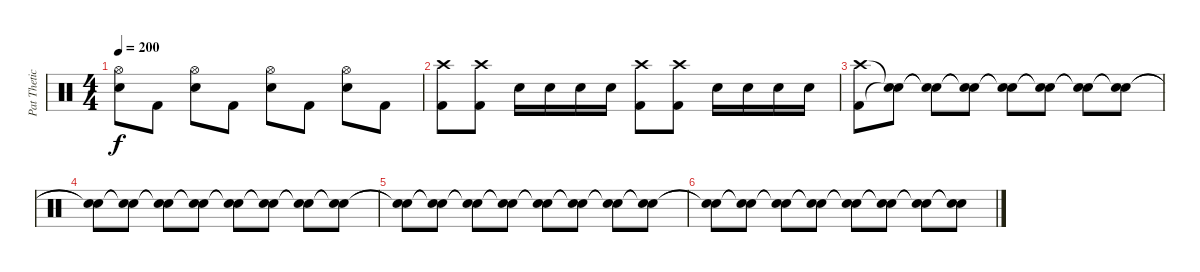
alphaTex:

\track ("Pat Thetic (Drums)" "Pat Thetic") {instrument percussion}
\staff {score}
\articulation defaults
\ts (4 4)
\tempo 200
\clef neutral
\ks c
("Hi-Hat (open)" "Electric Snare (hit)").8{dy f} "Kick (hit) 2".8 ("Hi-Hat (open)" "Electric Snare (hit)").8 "Kick (hit) 2".8 ("Hi-Hat (open)" "Electric Snare (hit)").8 "Kick (hit) 2".8 ("Hi-Hat (open)" "Electric Snare (hit)").8 "Kick (hit) 2".8 |
("Crash high (hit)" "Kick (hit) 2").8 ("Crash high (hit)" "Kick (hit) 2").8 "Electric Snare (hit)".16 "Electric Snare (hit)".16 "Electric Snare (hit)".16 "Electric Snare (hit)".16 ("Crash high (hit)" "Kick (hit) 2").8 ("Crash high (hit)" "Kick (hit) 2").8 "Electric Snare (hit)".16 "Electric Snare (hit)".16 "Electric Snare (hit)".16 "Electric Snare (hit)".16 |
("Crash high (hit)" "Kick (hit) 2").8 ("Snare (hit)"{t} "Snare (hit)"{t}).8 ("Snare (hit)"{t} "Snare (hit)"{t}).8 ("Snare (hit)"{t} "Snare (hit)"{t}).8 ("Snare (hit)"{t} "Snare (hit)"{t}).8 ("Snare (hit)"{t} "Snare (hit)"{t}).8 ("Snare (hit)"{t} "Snare (hit)"{t}).8 ("Snare (hit)"{t} "Snare (hit)"{t}).8 |
("Snare (hit)"{t} "Snare (hit)"{t}).8 ("Snare (hit)"{t} "Snare (hit)"{t}).8 ("Snare (hit)"{t} "Snare (hit)"{t}).8 ("Snare (hit)"{t} "Snare (hit)"{t}).8 ("Snare (hit)"{t} "Snare (hit)"{t}).8 ("Snare (hit)"{t} "Snare (hit)"{t}).8 ("Snare (hit)"{t} "Snare (hit)"{t}).8 ("Snare (hit)"{t} "Snare (hit)"{t}).8 |
("Snare (hit)"{t} "Snare (hit)"{t}).8 ("Snare (hit)"{t} "Snare (hit)"{t}).8 ("Snare (hit)"{t} "Snare (hit)"{t}).8 ("Snare (hit)"{t} "Snare (hit)"{t}).8 ("Snare (hit)"{t} "Snare (hit)"{t}).8 ("Snare (hit)"{t} "Snare (hit)"{t}).8 ("Snare (hit)"{t} "Snare (hit)"{t}).8 ("Snare (hit)"{t} "Snare (hit)"{t}).8 |
("Snare (hit)"{t} "Snare (hit)"{t}).8 ("Snare (hit)"{t} "Snare (hit)"{t}).8 ("Snare (hit)"{t} "Snare (hit)"{t}).8 ("Snare (hit)"{t} "Snare (hit)"{t}).8 ("Snare (hit)"{t} "Snare (hit)"{t}).8 ("Snare (hit)"{t} "Snare (hit)"{t}).8 ("Snare (hit)"{t} "Snare (hit)"{t}).8 ("Snare (hit)"{t} "Snare (hit)"{t}).8
